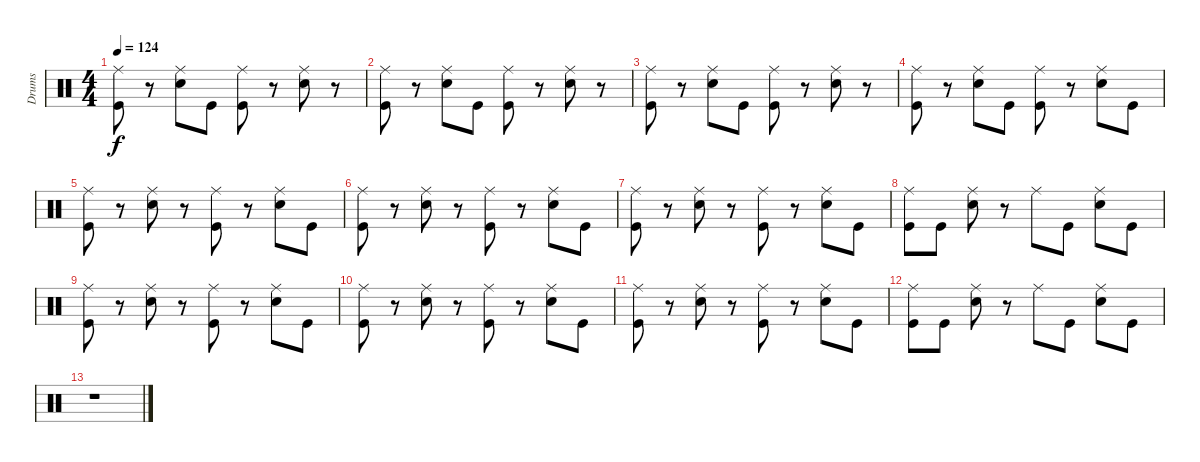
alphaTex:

\track ("Drums" "Drums") {instrument percussion}
\staff {score}
\articulation defaults
\ts (4 4)
\tempo 124
\clef neutral
\ks c
("Ride (middle)" "Kick (hit)").8{dy f} r.8 ("Ride (middle)" "Snare (hit) 2").8 "Kick (hit)".8 ("Ride (middle)" "Kick (hit)").8 r.8 ("Ride (middle)" "Snare (hit) 2").8 r.8 |
("Ride (middle)" "Kick (hit)").8 r.8 ("Ride (middle)" "Snare (hit) 2").8 "Kick (hit)".8 ("Ride (middle)" "Kick (hit)").8 r.8 ("Ride (middle)" "Snare (hit) 2").8 r.8 |
("Ride (middle)" "Kick (hit)").8 r.8 ("Ride (middle)" "Snare (hit) 2").8 "Kick (hit)".8 ("Ride (middle)" "Kick (hit)").8 r.8 ("Ride (middle)" "Snare (hit) 2").8 r.8 |
("Ride (middle)" "Kick (hit)").8 r.8 ("Ride (middle)" "Snare (hit) 2").8 "Kick (hit)".8 ("Ride (middle)" "Kick (hit)").8 r.8 ("Ride (middle)" "Snare (hit) 2").8 "Kick (hit)".8 |
("Ride (middle)" "Kick (hit)").8 r.8 ("Ride (middle)" "Snare (hit) 2").8 r.8 ("Ride (middle)" "Kick (hit)").8 r.8 ("Ride (middle)" "Snare (hit) 2").8 "Kick (hit)".8 |
("Ride (middle)" "Kick (hit)").8 r.8 ("Ride (middle)" "Snare (hit) 2").8 r.8 ("Ride (middle)" "Kick (hit)").8 r.8 ("Ride (middle)" "Snare (hit) 2").8 "Kick (hit)".8 |
("Ride (middle)" "Kick (hit)").8 r.8 ("Ride (middle)" "Snare (hit) 2").8 r.8 ("Ride (middle)" "Kick (hit)").8 r.8 ("Ride (middle)" "Snare (hit) 2").8 "Kick (hit)".8 |
("Ride (middle)" "Kick (hit)").8 "Kick (hit)".8 ("Ride (middle)" "Snare (hit) 2").8 r.8 "Ride (middle)".8 "Kick (hit)".8 ("Ride (middle)" "Snare (hit) 2").8 "Kick (hit)".8 |
("Ride (middle)" "Kick (hit)").8 r.8 ("Ride (middle)" "Snare (hit) 2").8 r.8 ("Ride (middle)" "Kick (hit)").8 r.8 ("Ride (middle)" "Snare (hit) 2").8 "Kick (hit)".8 |
("Ride (middle)" "Kick (hit)").8 r.8 ("Ride (middle)" "Snare (hit) 2").8 r.8 ("Ride (middle)" "Kick (hit)").8 r.8 ("Ride (middle)" "Snare (hit) 2").8 "Kick (hit)".8 |
("Ride (middle)" "Kick (hit)").8 r.8 ("Ride (middle)" "Snare (hit) 2").8 r.8 ("Ride (middle)" "Kick (hit)").8 r.8 ("Ride (middle)" "Snare (hit) 2").8 "Kick (hit)".8 |
("Ride (middle)" "Kick (hit)").8{volume 10} "Kick (hit)".8 ("Ride (middle)" "Snare (hit) 2").8 r.8 "Ride (middle)".8 "Kick (hit)".8 ("Ride (middle)" "Snare (hit) 2").8 "Kick (hit)".8 |
r.1
